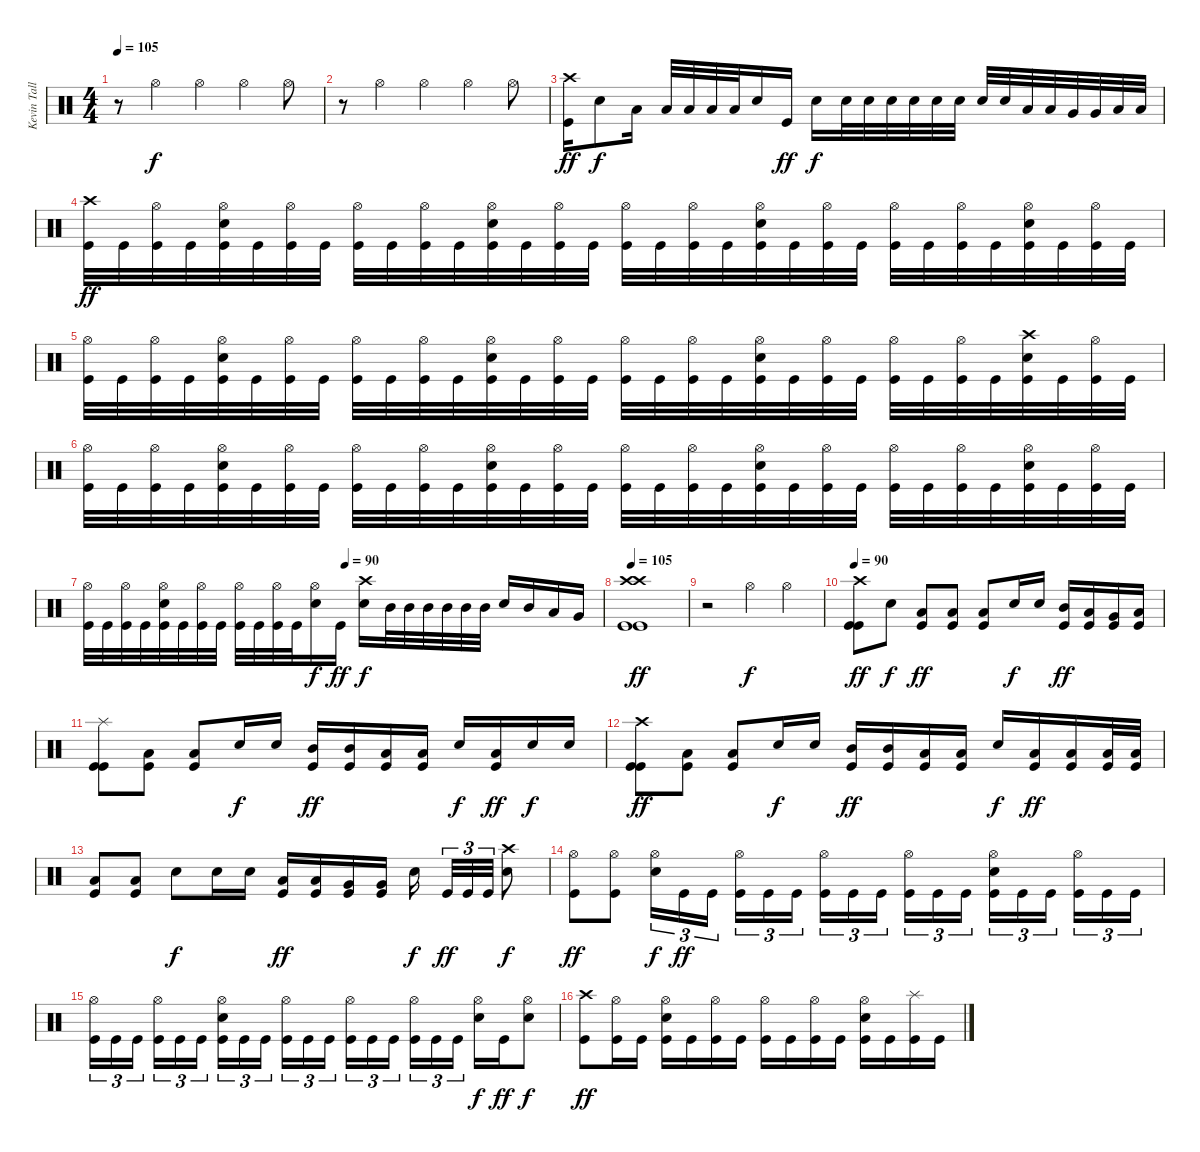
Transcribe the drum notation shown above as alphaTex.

\track ("Kevin Talley" "Kevin Tall") {instrument percussion}
\staff {score}
\articulation defaults
\ts (4 4)
\tempo 105
\clef neutral
\ks c
r.8{dy f} "Hi-Hat (open)".4 "Hi-Hat (open)".4 "Hi-Hat (open)".4 "Hi-Hat (open)".8 |
r.8 "Hi-Hat (open)".4 "Hi-Hat (open)".4 "Hi-Hat (open)".4 "Hi-Hat (open)".8 |
("Crash high (hit)" "Kick (hit)").16{dy ff} "Electric Snare (hit)".8{dy f} "Low Floor Tom (hit)".16 "Low Floor Tom (hit)".32 "Low Floor Tom (hit)".32 "Low Floor Tom (hit)".32 "Low Floor Tom (hit)".32 "Electric Snare (hit)".16 "Kick (hit)".16{dy ff} "Electric Snare (hit)".16{dy f} "Electric Snare (hit)".32 "Electric Snare (hit)".32 "Electric Snare (hit)".32 "Electric Snare (hit)".32 "Electric Snare (hit)".32 "Electric Snare (hit)".32 "Electric Snare (hit)".32 "Electric Snare (hit)".32 "Low Tom (hit)".32 "Low Tom (hit)".32 "Very Low Tom (hit)".32 "Very Low Tom (hit)".32 "Low Floor Tom (hit)".32 "Low Floor Tom (hit)".32 |
("Crash high (hit)" "Kick (hit)").32{dy ff} "Kick (hit)".32 ("Hi-Hat (open)" "Kick (hit)").32 "Kick (hit)".32 ("Hi-Hat (open)" "Electric Snare (hit)" "Kick (hit)").32 "Kick (hit)".32 ("Hi-Hat (open)" "Kick (hit)").32 "Kick (hit)".32 ("Hi-Hat (open)" "Kick (hit)").32 "Kick (hit)".32 ("Hi-Hat (open)" "Kick (hit)").32 "Kick (hit)".32 ("Hi-Hat (open)" "Electric Snare (hit)" "Kick (hit)").32 "Kick (hit)".32 ("Hi-Hat (open)" "Kick (hit)").32 "Kick (hit)".32 ("Hi-Hat (open)" "Kick (hit)").32 "Kick (hit)".32 ("Hi-Hat (open)" "Kick (hit)").32 "Kick (hit)".32 ("Hi-Hat (open)" "Electric Snare (hit)" "Kick (hit)").32 "Kick (hit)".32 ("Hi-Hat (open)" "Kick (hit)").32 "Kick (hit)".32 ("Hi-Hat (open)" "Kick (hit)").32 "Kick (hit)".32 ("Hi-Hat (open)" "Kick (hit)").32 "Kick (hit)".32 ("Hi-Hat (open)" "Electric Snare (hit)" "Kick (hit)").32 "Kick (hit)".32 ("Hi-Hat (open)" "Kick (hit)").32 "Kick (hit)".32 |
("Hi-Hat (open)" "Kick (hit)").32 "Kick (hit)".32 ("Hi-Hat (open)" "Kick (hit)").32 "Kick (hit)".32 ("Hi-Hat (open)" "Electric Snare (hit)" "Kick (hit)").32 "Kick (hit)".32 ("Hi-Hat (open)" "Kick (hit)").32 "Kick (hit)".32 ("Hi-Hat (open)" "Kick (hit)").32 "Kick (hit)".32 ("Hi-Hat (open)" "Kick (hit)").32 "Kick (hit)".32 ("Hi-Hat (open)" "Electric Snare (hit)" "Kick (hit)").32 "Kick (hit)".32 ("Hi-Hat (open)" "Kick (hit)").32 "Kick (hit)".32 ("Hi-Hat (open)" "Kick (hit)").32 "Kick (hit)".32 ("Hi-Hat (open)" "Kick (hit)").32 "Kick (hit)".32 ("Hi-Hat (open)" "Electric Snare (hit)" "Kick (hit)").32 "Kick (hit)".32 ("Hi-Hat (open)" "Kick (hit)").32 "Kick (hit)".32 ("Hi-Hat (open)" "Kick (hit)").32 "Kick (hit)".32 ("Hi-Hat (open)" "Kick (hit)").32 "Kick (hit)".32 ("Crash high (hit)" "Electric Snare (hit)" "Kick (hit)").32 "Kick (hit)".32 ("Hi-Hat (open)" "Kick (hit)").32 "Kick (hit)".32 |
("Hi-Hat (open)" "Kick (hit)").32 "Kick (hit)".32 ("Hi-Hat (open)" "Kick (hit)").32 "Kick (hit)".32 ("Hi-Hat (open)" "Electric Snare (hit)" "Kick (hit)").32 "Kick (hit)".32 ("Hi-Hat (open)" "Kick (hit)").32 "Kick (hit)".32 ("Hi-Hat (open)" "Kick (hit)").32 "Kick (hit)".32 ("Hi-Hat (open)" "Kick (hit)").32 "Kick (hit)".32 ("Hi-Hat (open)" "Electric Snare (hit)" "Kick (hit)").32 "Kick (hit)".32 ("Hi-Hat (open)" "Kick (hit)").32 "Kick (hit)".32 ("Hi-Hat (open)" "Kick (hit)").32 "Kick (hit)".32 ("Hi-Hat (open)" "Kick (hit)").32 "Kick (hit)".32 ("Hi-Hat (open)" "Electric Snare (hit)" "Kick (hit)").32 "Kick (hit)".32 ("Hi-Hat (open)" "Kick (hit)").32 "Kick (hit)".32 ("Hi-Hat (open)" "Kick (hit)").32 "Kick (hit)".32 ("Hi-Hat (open)" "Kick (hit)").32 "Kick (hit)".32 ("Hi-Hat (open)" "Electric Snare (hit)" "Kick (hit)").32 "Kick (hit)".32 ("Hi-Hat (open)" "Kick (hit)").32 "Kick (hit)".32 |
\tempo (90 0.5)
("Hi-Hat (open)" "Kick (hit)").32 "Kick (hit)".32 ("Hi-Hat (open)" "Kick (hit)").32 "Kick (hit)".32 ("Hi-Hat (open)" "Electric Snare (hit)" "Kick (hit)").32 "Kick (hit)".32 ("Hi-Hat (open)" "Kick (hit)").32 "Kick (hit)".32 ("Hi-Hat (open)" "Kick (hit)").32 "Kick (hit)".32 ("Hi-Hat (open)" "Kick (hit)").32 "Kick (hit)".32 ("Hi-Hat (open)" "Electric Snare (hit)").16{dy f} "Kick (hit)".16{dy ff} ("Crash high (hit)" "Electric Snare (hit)").16{dy f} "Mid Tom (hit)".32 "Mid Tom (hit)".32 "Mid Tom (hit)".32 "Mid Tom (hit)".32 "Mid Tom (hit)".32 "Mid Tom (hit)".32 "Electric Snare (hit)".16 "Mid Tom (hit)".16 "Low Tom (hit)".16 "Very Low Tom (hit)".16 |
\tempo 105
("Crash high (hit)" "Crash high (hit)" "Kick (hit)" "Kick (hit)").1{dy ff} |
r.2 "Hi-Hat (open)".4{dy f} "Hi-Hat (open)".4 |
\tempo 90
("Crash high (hit)" "Kick (hit)" "Kick (hit)").8{dy ff} "Electric Snare (hit)".8{dy f} ("Low Floor Tom (hit)" "Kick (hit)").8{dy ff} ("Low Floor Tom (hit)" "Kick (hit)").8 ("Low Floor Tom (hit)" "Kick (hit)").8 "Electric Snare (hit)".16{dy f} "Electric Snare (hit)".16 ("Mid Tom (hit)" "Kick (hit)").16{dy ff} ("Low Tom (hit)" "Kick (hit)").16 ("Very Low Tom (hit)" "Kick (hit)").16 ("Low Floor Tom (hit)" "Kick (hit)").16 |
("Splash (hit)" "Kick (hit)" "Kick (hit)").8 ("Low Floor Tom (hit)" "Kick (hit)").8 ("Low Floor Tom (hit)" "Kick (hit)").8 "Electric Snare (hit)".16{dy f} "Electric Snare (hit)".16 ("Mid Tom (hit)" "Kick (hit)").16{dy ff} ("Mid Tom (hit)" "Kick (hit)").16 ("Low Tom (hit)" "Kick (hit)").16 ("Low Tom (hit)" "Kick (hit)").16 "Electric Snare (hit)".16{dy f} ("Low Floor Tom (hit)" "Kick (hit)").16{dy ff} "Electric Snare (hit)".16{dy f} "Electric Snare (hit)".16 |
("Crash high (hit)" "Kick (hit)" "Kick (hit)").8{dy ff} ("Low Floor Tom (hit)" "Kick (hit)").8 ("Low Floor Tom (hit)" "Kick (hit)").8 "Electric Snare (hit)".16{dy f} "Electric Snare (hit)".16 ("Mid Tom (hit)" "Kick (hit)").16{dy ff} ("Mid Tom (hit)" "Kick (hit)").16 ("Low Tom (hit)" "Kick (hit)").16 ("Low Tom (hit)" "Kick (hit)").16 "Electric Snare (hit)".16{dy f} ("Low Floor Tom (hit)" "Kick (hit)").16{dy ff} ("Low Floor Tom (hit)" "Kick (hit)").16 ("Low Floor Tom (hit)" "Kick (hit)").32 ("Low Floor Tom (hit)" "Kick (hit)").32 |
("Low Floor Tom (hit)" "Kick (hit)").8 ("Low Floor Tom (hit)" "Kick (hit)").8 "Electric Snare (hit)".8{dy f} "Electric Snare (hit)".16 "Electric Snare (hit)".16 ("Low Tom (hit)" "Kick (hit)").16{dy ff} ("Low Tom (hit)" "Kick (hit)").16 ("Very Low Tom (hit)" "Kick (hit)").16 ("Very Low Tom (hit)" "Kick (hit)").16 "Electric Snare (hit)".16{dy f} "Kick (hit)".32{tu (3 2) dy ff} "Kick (hit)".32{tu (3 2)} "Kick (hit)".32{tu (3 2)} ("Crash high (hit)" "Electric Snare (hit)").8{dy f} |
("Hi-Hat (open)" "Kick (hit)").8{dy ff} ("Hi-Hat (open)" "Kick (hit)").8 ("Hi-Hat (open)" "Electric Snare (hit)").16{tu (3 2) dy f} "Kick (hit)".16{tu (3 2) dy ff} "Kick (hit)".16{tu (3 2)} ("Hi-Hat (open)" "Kick (hit)").16{tu (3 2)} "Kick (hit)".16{tu (3 2)} "Kick (hit)".16{tu (3 2)} ("Hi-Hat (open)" "Kick (hit)").16{tu (3 2)} "Kick (hit)".16{tu (3 2)} "Kick (hit)".16{tu (3 2)} ("Hi-Hat (open)" "Kick (hit)").16{tu (3 2)} "Kick (hit)".16{tu (3 2)} "Kick (hit)".16{tu (3 2)} ("Hi-Hat (open)" "Electric Snare (hit)" "Kick (hit)").16{tu (3 2)} "Kick (hit)".16{tu (3 2)} "Kick (hit)".16{tu (3 2)} ("Hi-Hat (open)" "Kick (hit)").16{tu (3 2)} "Kick (hit)".16{tu (3 2)} "Kick (hit)".16{tu (3 2)} |
("Hi-Hat (open)" "Kick (hit)").16{tu (3 2)} "Kick (hit)".16{tu (3 2)} "Kick (hit)".16{tu (3 2)} ("Hi-Hat (open)" "Kick (hit)").16{tu (3 2)} "Kick (hit)".16{tu (3 2)} "Kick (hit)".16{tu (3 2)} ("Hi-Hat (open)" "Electric Snare (hit)" "Kick (hit)").16{tu (3 2)} "Kick (hit)".16{tu (3 2)} "Kick (hit)".16{tu (3 2)} ("Hi-Hat (open)" "Kick (hit)").16{tu (3 2)} "Kick (hit)".16{tu (3 2)} "Kick (hit)".16{tu (3 2)} ("Hi-Hat (open)" "Kick (hit)").16{tu (3 2)} "Kick (hit)".16{tu (3 2)} "Kick (hit)".16{tu (3 2)} ("Hi-Hat (open)" "Kick (hit)").16{tu (3 2)} "Kick (hit)".16{tu (3 2)} "Kick (hit)".16{tu (3 2)} ("Hi-Hat (open)" "Electric Snare (hit)").16{dy f} "Kick (hit)".16{dy ff} ("Hi-Hat (open)" "Electric Snare (hit)").8{dy f} |
("Crash high (hit)" "Kick (hit)").8{dy ff} ("Hi-Hat (open)" "Kick (hit)").16 "Kick (hit)".16 ("Hi-Hat (open)" "Electric Snare (hit)" "Kick (hit)").16 "Kick (hit)".16 ("Hi-Hat (open)" "Kick (hit)").16 "Kick (hit)".16 ("Hi-Hat (open)" "Kick (hit)").16 "Kick (hit)".16 ("Hi-Hat (open)" "Kick (hit)").16 "Kick (hit)".16 ("Hi-Hat (open)" "Electric Snare (hit)" "Kick (hit)").16 "Kick (hit)".16 ("Splash (hit)" "Kick (hit)").16 "Kick (hit)".16
